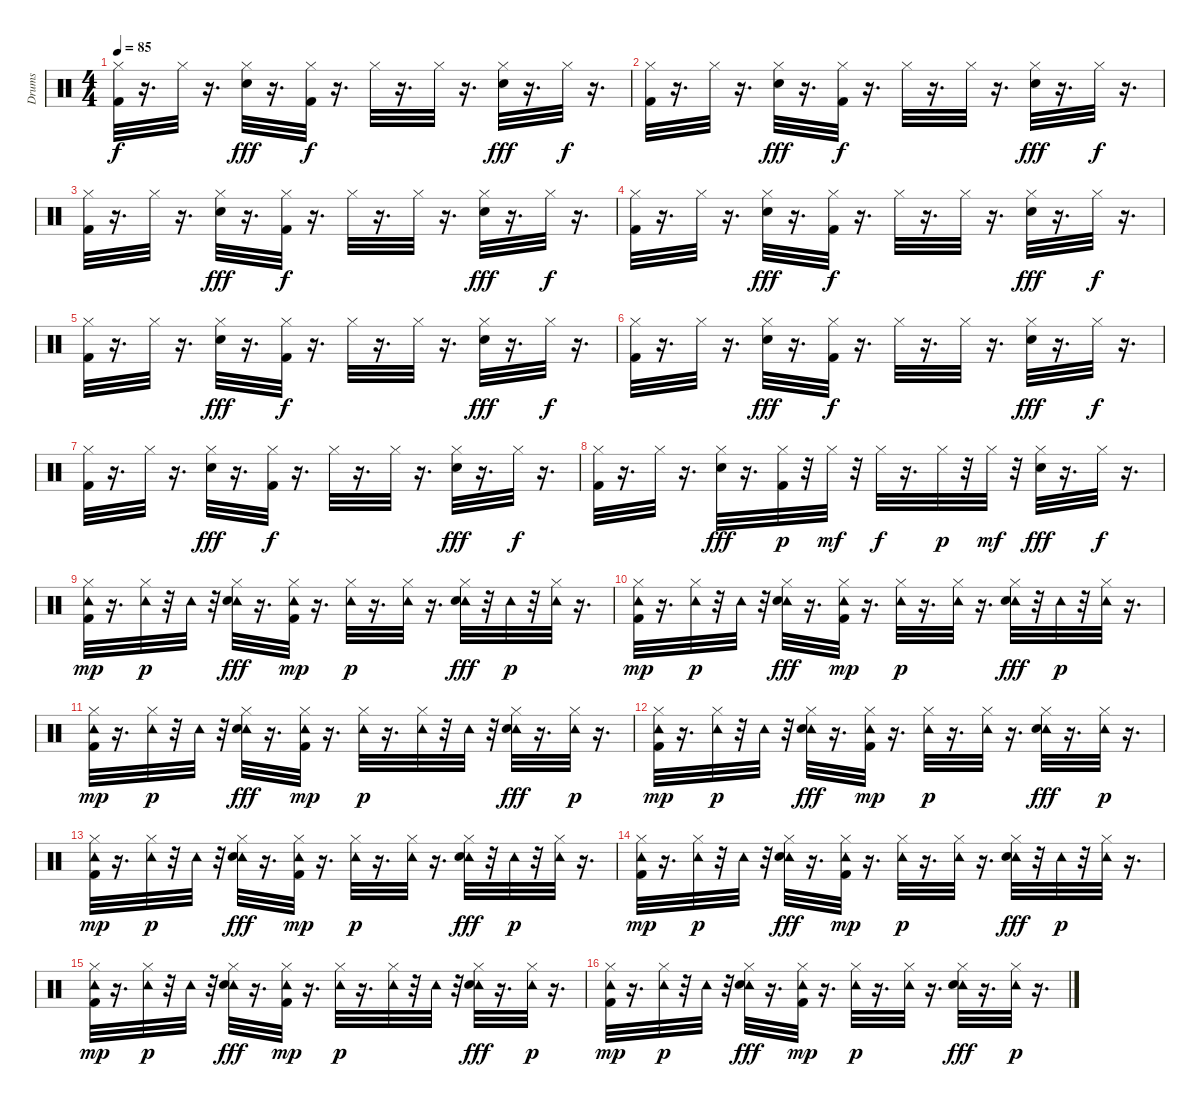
\track ("Drums" "Drums") {instrument percussion}
\staff {score}
\articulation defaults
\ts (4 4)
\tempo 85
\clef neutral
\ks c
("Hi-Hat (closed)" "Kick (hit) 2").32{dy f} r.16{d} "Hi-Hat (closed)".32 r.16{d} ("Hi-Hat (closed)" "Electric Snare (hit)").32{dy fff} r.16{d} ("Hi-Hat (closed)" "Kick (hit) 2").32{dy f} r.16{d} "Hi-Hat (closed)".32 r.16{d} "Hi-Hat (closed)".32 r.16{d} ("Hi-Hat (closed)" "Electric Snare (hit)").32{dy fff} r.16{d} "Hi-Hat (closed)".32{dy f} r.16{d} |
("Hi-Hat (closed)" "Kick (hit) 2").32 r.16{d} "Hi-Hat (closed)".32 r.16{d} ("Hi-Hat (closed)" "Electric Snare (hit)").32{dy fff} r.16{d} ("Hi-Hat (closed)" "Kick (hit) 2").32{dy f} r.16{d} "Hi-Hat (closed)".32 r.16{d} "Hi-Hat (closed)".32 r.16{d} ("Hi-Hat (closed)" "Electric Snare (hit)").32{dy fff} r.16{d} "Hi-Hat (closed)".32{dy f} r.16{d} |
("Hi-Hat (closed)" "Kick (hit) 2").32 r.16{d} "Hi-Hat (closed)".32 r.16{d} ("Hi-Hat (closed)" "Electric Snare (hit)").32{dy fff} r.16{d} ("Hi-Hat (closed)" "Kick (hit) 2").32{dy f} r.16{d} "Hi-Hat (closed)".32 r.16{d} "Hi-Hat (closed)".32 r.16{d} ("Hi-Hat (closed)" "Electric Snare (hit)").32{dy fff} r.16{d} "Hi-Hat (closed)".32{dy f} r.16{d} |
("Hi-Hat (closed)" "Kick (hit) 2").32 r.16{d} "Hi-Hat (closed)".32 r.16{d} ("Hi-Hat (closed)" "Electric Snare (hit)").32{dy fff} r.16{d} ("Hi-Hat (closed)" "Kick (hit) 2").32{dy f} r.16{d} "Hi-Hat (closed)".32 r.16{d} "Hi-Hat (closed)".32 r.16{d} ("Hi-Hat (closed)" "Electric Snare (hit)").32{dy fff} r.16{d} "Hi-Hat (closed)".32{dy f} r.16{d} |
("Hi-Hat (closed)" "Kick (hit) 2").32 r.16{d} "Hi-Hat (closed)".32 r.16{d} ("Hi-Hat (closed)" "Electric Snare (hit)").32{dy fff} r.16{d} ("Hi-Hat (closed)" "Kick (hit) 2").32{dy f} r.16{d} "Hi-Hat (closed)".32 r.16{d} "Hi-Hat (closed)".32 r.16{d} ("Hi-Hat (closed)" "Electric Snare (hit)").32{dy fff} r.16{d} "Hi-Hat (closed)".32{dy f} r.16{d} |
("Hi-Hat (closed)" "Kick (hit) 2").32 r.16{d} "Hi-Hat (closed)".32 r.16{d} ("Hi-Hat (closed)" "Electric Snare (hit)").32{dy fff} r.16{d} ("Hi-Hat (closed)" "Kick (hit) 2").32{dy f} r.16{d} "Hi-Hat (closed)".32 r.16{d} "Hi-Hat (closed)".32 r.16{d} ("Hi-Hat (closed)" "Electric Snare (hit)").32{dy fff} r.16{d} "Hi-Hat (closed)".32{dy f} r.16{d} |
("Hi-Hat (closed)" "Kick (hit) 2").32 r.16{d} "Hi-Hat (closed)".32 r.16{d} ("Hi-Hat (closed)" "Electric Snare (hit)").32{dy fff} r.16{d} ("Hi-Hat (closed)" "Kick (hit) 2").32{dy f} r.16{d} "Hi-Hat (closed)".32 r.16{d} "Hi-Hat (closed)".32 r.16{d} ("Hi-Hat (closed)" "Electric Snare (hit)").32{dy fff} r.16{d} "Hi-Hat (closed)".32{dy f} r.16{d} |
("Hi-Hat (closed)" "Kick (hit) 2").32 r.16{d} "Hi-Hat (closed)".32 r.16{d} ("Hi-Hat (closed)" "Electric Snare (hit)").32{dy fff} r.16{d} ("Hi-Hat (closed)" "Kick (hit) 2").32{dy p} r.32 "Hi-Hat (closed)".32{dy mf} r.32 "Hi-Hat (closed)".32{dy f} r.16{d} "Hi-Hat (closed)".32{dy p} r.32 "Hi-Hat (closed)".32{dy mf} r.32 ("Hi-Hat (closed)" "Electric Snare (hit)").32{dy fff} r.16{d} "Hi-Hat (closed)".32{dy f} r.16{d} |
("Tambourine (hit)" "Hi-Hat (closed)" "Kick (hit) 2").32{dy mp} r.16{d} ("Tambourine (hit)" "Hi-Hat (closed)").32{dy p} r.32 "Tambourine (hit)".32 r.32 ("Tambourine (hit)" "Hi-Hat (closed)" "Electric Snare (hit)").32{dy fff} r.16{d} ("Tambourine (hit)" "Hi-Hat (closed)" "Kick (hit) 2").32{dy mp} r.16{d} ("Tambourine (hit)" "Hi-Hat (closed)").32{dy p} r.16{d} ("Tambourine (hit)" "Hi-Hat (closed)").32 r.16{d} ("Tambourine (hit)" "Hi-Hat (closed)" "Electric Snare (hit)").32{dy fff} r.32 "Tambourine (hit)".32{dy p} r.32 ("Tambourine (hit)" "Hi-Hat (closed)").32 r.16{d} |
("Tambourine (hit)" "Hi-Hat (closed)" "Kick (hit) 2").32{dy mp} r.16{d} ("Tambourine (hit)" "Hi-Hat (closed)").32{dy p} r.32 "Tambourine (hit)".32 r.32 ("Tambourine (hit)" "Hi-Hat (closed)" "Electric Snare (hit)").32{dy fff} r.16{d} ("Tambourine (hit)" "Hi-Hat (closed)" "Kick (hit) 2").32{dy mp} r.16{d} ("Tambourine (hit)" "Hi-Hat (closed)").32{dy p} r.16{d} ("Tambourine (hit)" "Hi-Hat (closed)").32 r.16{d} ("Tambourine (hit)" "Hi-Hat (closed)" "Electric Snare (hit)").32{dy fff} r.32 "Tambourine (hit)".32{dy p} r.32 ("Tambourine (hit)" "Hi-Hat (closed)").32 r.16{d} |
("Tambourine (hit)" "Hi-Hat (closed)" "Kick (hit) 2").32{dy mp} r.16{d} ("Tambourine (hit)" "Hi-Hat (closed)").32{dy p} r.32 "Tambourine (hit)".32 r.32 ("Tambourine (hit)" "Hi-Hat (closed)" "Electric Snare (hit)").32{dy fff} r.16{d} ("Tambourine (hit)" "Hi-Hat (closed)" "Kick (hit) 2").32{dy mp} r.16{d} ("Tambourine (hit)" "Hi-Hat (closed)").32{dy p} r.16{d} ("Tambourine (hit)" "Hi-Hat (closed)").32 r.32 "Tambourine (hit)".32 r.32 ("Tambourine (hit)" "Hi-Hat (closed)" "Electric Snare (hit)").32{dy fff} r.16{d} ("Tambourine (hit)" "Hi-Hat (closed)").32{dy p} r.16{d} |
("Tambourine (hit)" "Hi-Hat (closed)" "Kick (hit) 2").32{dy mp} r.16{d} ("Tambourine (hit)" "Hi-Hat (closed)").32{dy p} r.32 "Tambourine (hit)".32 r.32 ("Tambourine (hit)" "Hi-Hat (closed)" "Electric Snare (hit)").32{dy fff} r.16{d} ("Tambourine (hit)" "Hi-Hat (closed)" "Kick (hit) 2").32{dy mp} r.16{d} ("Tambourine (hit)" "Hi-Hat (closed)").32{dy p} r.16{d} ("Tambourine (hit)" "Hi-Hat (closed)").32 r.16{d} ("Tambourine (hit)" "Hi-Hat (closed)" "Electric Snare (hit)").32{dy fff} r.16{d} ("Tambourine (hit)" "Hi-Hat (closed)").32{dy p} r.16{d} |
("Tambourine (hit)" "Hi-Hat (closed)" "Kick (hit) 2").32{dy mp} r.16{d} ("Tambourine (hit)" "Hi-Hat (closed)").32{dy p} r.32 "Tambourine (hit)".32 r.32 ("Tambourine (hit)" "Hi-Hat (closed)" "Electric Snare (hit)").32{dy fff} r.16{d} ("Tambourine (hit)" "Hi-Hat (closed)" "Kick (hit) 2").32{dy mp} r.16{d} ("Tambourine (hit)" "Hi-Hat (closed)").32{dy p} r.16{d} ("Tambourine (hit)" "Hi-Hat (closed)").32 r.16{d} ("Tambourine (hit)" "Hi-Hat (closed)" "Electric Snare (hit)").32{dy fff} r.32 "Tambourine (hit)".32{dy p} r.32 ("Tambourine (hit)" "Hi-Hat (closed)").32 r.16{d} |
("Tambourine (hit)" "Hi-Hat (closed)" "Kick (hit) 2").32{dy mp} r.16{d} ("Tambourine (hit)" "Hi-Hat (closed)").32{dy p} r.32 "Tambourine (hit)".32 r.32 ("Tambourine (hit)" "Hi-Hat (closed)" "Electric Snare (hit)").32{dy fff} r.16{d} ("Tambourine (hit)" "Hi-Hat (closed)" "Kick (hit) 2").32{dy mp} r.16{d} ("Tambourine (hit)" "Hi-Hat (closed)").32{dy p} r.16{d} ("Tambourine (hit)" "Hi-Hat (closed)").32 r.16{d} ("Tambourine (hit)" "Hi-Hat (closed)" "Electric Snare (hit)").32{dy fff} r.32 "Tambourine (hit)".32{dy p} r.32 ("Tambourine (hit)" "Hi-Hat (closed)").32 r.16{d} |
("Tambourine (hit)" "Hi-Hat (closed)" "Kick (hit) 2").32{dy mp} r.16{d} ("Tambourine (hit)" "Hi-Hat (closed)").32{dy p} r.32 "Tambourine (hit)".32 r.32 ("Tambourine (hit)" "Hi-Hat (closed)" "Electric Snare (hit)").32{dy fff} r.16{d} ("Tambourine (hit)" "Hi-Hat (closed)" "Kick (hit) 2").32{dy mp} r.16{d} ("Tambourine (hit)" "Hi-Hat (closed)").32{dy p} r.16{d} ("Tambourine (hit)" "Hi-Hat (closed)").32 r.32 "Tambourine (hit)".32 r.32 ("Tambourine (hit)" "Hi-Hat (closed)" "Electric Snare (hit)").32{dy fff} r.16{d} ("Tambourine (hit)" "Hi-Hat (closed)").32{dy p} r.16{d} |
("Tambourine (hit)" "Hi-Hat (closed)" "Kick (hit) 2").32{dy mp} r.16{d} ("Tambourine (hit)" "Hi-Hat (closed)").32{dy p} r.32 "Tambourine (hit)".32 r.32 ("Tambourine (hit)" "Hi-Hat (closed)" "Electric Snare (hit)").32{dy fff} r.16{d} ("Tambourine (hit)" "Hi-Hat (closed)" "Kick (hit) 2").32{dy mp} r.16{d} ("Tambourine (hit)" "Hi-Hat (closed)").32{dy p} r.16{d} ("Tambourine (hit)" "Hi-Hat (closed)").32 r.16{d} ("Tambourine (hit)" "Hi-Hat (closed)" "Electric Snare (hit)").32{dy fff} r.16{d} ("Tambourine (hit)" "Hi-Hat (closed)").32{dy p} r.16{d}
